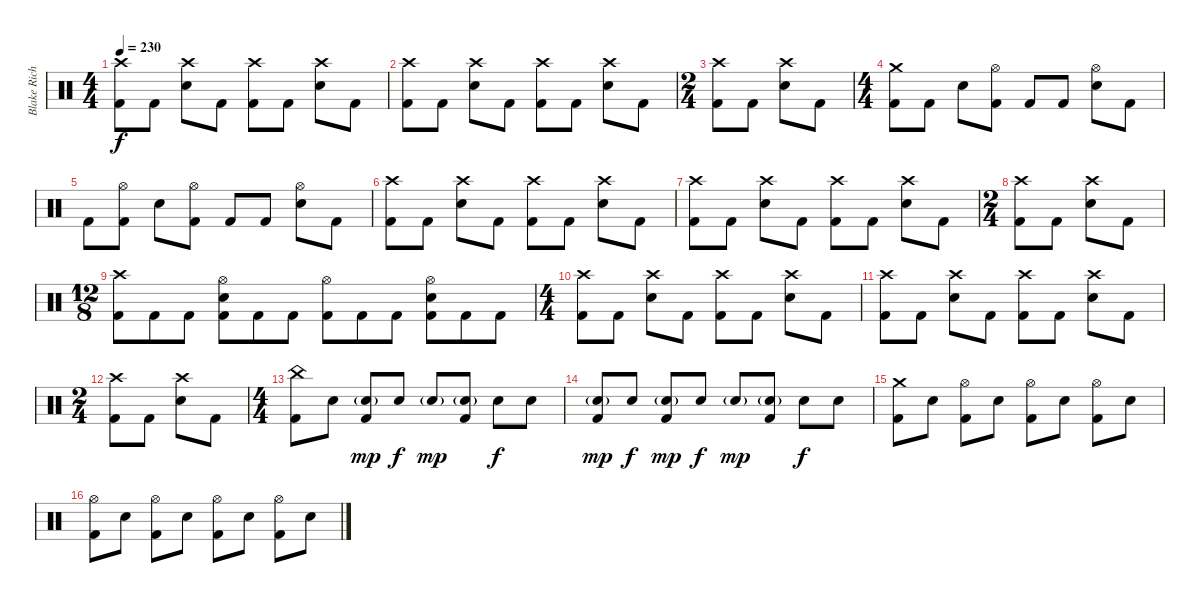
\track ("Blake Richardson - Drums" "Blake Rich") {instrument percussion}
\staff {score}
\articulation defaults
\ts (4 4)
\tempo 230
\clef neutral
\ks c
("Crash high (hit)" "Kick (hit) 2").8{dy f} "Kick (hit) 2".8 ("Crash high (hit)" "Electric Snare (hit)").8 "Kick (hit) 2".8 ("Crash high (hit)" "Kick (hit) 2").8 "Kick (hit) 2".8 ("Crash high (hit)" "Electric Snare (hit)").8 "Kick (hit) 2".8 |
("Crash high (hit)" "Kick (hit) 2").8 "Kick (hit) 2".8 ("Crash high (hit)" "Electric Snare (hit)").8 "Kick (hit) 2".8 ("Crash high (hit)" "Kick (hit) 2").8 "Kick (hit) 2".8 ("Crash high (hit)" "Electric Snare (hit)").8 "Kick (hit) 2".8 |
\ts (2 4)
("Crash high (hit)" "Kick (hit) 2").8 "Kick (hit) 2".8 ("Crash high (hit)" "Electric Snare (hit)").8 "Kick (hit) 2".8 |
\ts (4 4)
("Crash medium (hit)" "Kick (hit) 2").8 "Kick (hit) 2".8 "Electric Snare (hit)".8 ("Hi-Hat (open)" "Kick (hit) 2").8 "Kick (hit) 2".8 "Kick (hit) 2".8 ("Hi-Hat (open)" "Electric Snare (hit)").8 "Kick (hit) 2".8 |
"Kick (hit) 2".8 ("Hi-Hat (open)" "Kick (hit) 2").8 "Electric Snare (hit)".8 ("Hi-Hat (open)" "Kick (hit) 2").8 "Kick (hit) 2".8 "Kick (hit) 2".8 ("Hi-Hat (open)" "Electric Snare (hit)").8 "Kick (hit) 2".8 |
("Crash high (hit)" "Kick (hit) 2").8 "Kick (hit) 2".8 ("Crash high (hit)" "Electric Snare (hit)").8 "Kick (hit) 2".8 ("Crash high (hit)" "Kick (hit) 2").8 "Kick (hit) 2".8 ("Crash high (hit)" "Electric Snare (hit)").8 "Kick (hit) 2".8 |
("Crash high (hit)" "Kick (hit) 2").8 "Kick (hit) 2".8 ("Crash high (hit)" "Electric Snare (hit)").8 "Kick (hit) 2".8 ("Crash high (hit)" "Kick (hit) 2").8 "Kick (hit) 2".8 ("Crash high (hit)" "Electric Snare (hit)").8 "Kick (hit) 2".8 |
\ts (2 4)
("Crash high (hit)" "Kick (hit) 2").8 "Kick (hit) 2".8 ("Crash high (hit)" "Electric Snare (hit)").8 "Kick (hit) 2".8 |
\ts (12 8)
("Crash high (hit)" "Kick (hit) 2").8 "Kick (hit) 2".8 "Kick (hit) 2".8 ("Hi-Hat (open)" "Electric Snare (hit)" "Kick (hit) 2").8 "Kick (hit) 2".8 "Kick (hit) 2".8 ("Hi-Hat (open)" "Kick (hit) 2").8 "Kick (hit) 2".8 "Kick (hit) 2".8 ("Hi-Hat (open)" "Electric Snare (hit)" "Kick (hit) 2").8 "Kick (hit) 2".8 "Kick (hit) 2".8 |
\ts (4 4)
("Crash high (hit)" "Kick (hit) 2").8 "Kick (hit) 2".8 ("Crash high (hit)" "Electric Snare (hit)").8 "Kick (hit) 2".8 ("Crash high (hit)" "Kick (hit) 2").8 "Kick (hit) 2".8 ("Crash high (hit)" "Electric Snare (hit)").8 "Kick (hit) 2".8 |
("Crash high (hit)" "Kick (hit) 2").8 "Kick (hit) 2".8 ("Crash high (hit)" "Electric Snare (hit)").8 "Kick (hit) 2".8 ("Crash high (hit)" "Kick (hit) 2").8 "Kick (hit) 2".8 ("Crash high (hit)" "Electric Snare (hit)").8 "Kick (hit) 2".8 |
\ts (2 4)
("Crash high (hit)" "Kick (hit) 2").8 "Kick (hit) 2".8 ("Crash high (hit)" "Electric Snare (hit)").8 "Kick (hit) 2".8 |
\ts (4 4)
("China (hit)" "Kick (hit) 2").8 "Electric Snare (hit)".8 ("Electric Snare (hit)"{g} "Kick (hit) 2").8{dy mp} "Electric Snare (hit)".8{dy f} "Electric Snare (hit)"{g}.8{dy mp} ("Electric Snare (hit)"{g} "Kick (hit) 2").8 "Electric Snare (hit)".8{dy f} "Electric Snare (hit)".8 |
("Electric Snare (hit)"{g} "Kick (hit) 2").8{dy mp} "Electric Snare (hit)".8{dy f} ("Electric Snare (hit)"{g} "Kick (hit) 2").8{dy mp} "Electric Snare (hit)".8{dy f} "Electric Snare (hit)"{g}.8{dy mp} ("Electric Snare (hit)"{g} "Kick (hit) 2").8 "Electric Snare (hit)".8{dy f} "Electric Snare (hit)".8 |
("Crash medium (hit)" "Kick (hit) 2").8 "Electric Snare (hit)".8 ("Hi-Hat (open)" "Kick (hit) 2").8 "Electric Snare (hit)".8 ("Hi-Hat (open)" "Kick (hit) 2").8 "Electric Snare (hit)".8 ("Hi-Hat (open)" "Kick (hit) 2").8 "Electric Snare (hit)".8 |
("Hi-Hat (open)" "Kick (hit) 2").8 "Electric Snare (hit)".8 ("Hi-Hat (open)" "Kick (hit) 2").8 "Electric Snare (hit)".8 ("Hi-Hat (open)" "Kick (hit) 2").8 "Electric Snare (hit)".8 ("Hi-Hat (open)" "Kick (hit) 2").8 "Electric Snare (hit)".8
